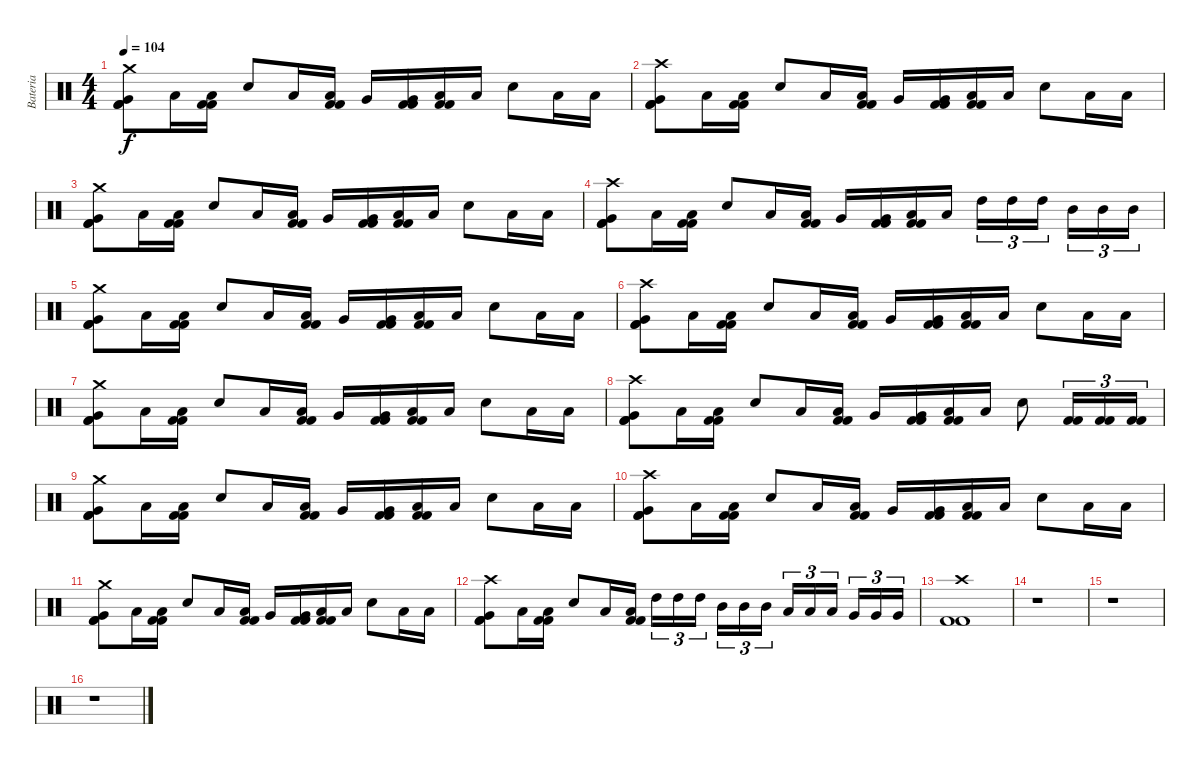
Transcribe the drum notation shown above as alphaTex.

\track ("Bateria" "Bateria") {instrument percussion}
\staff {score}
\articulation defaults
\ts (4 4)
\tempo 104
\clef neutral
\ks c
("Kick (hit) 2" "Kick (hit) 2" "Very Low Tom (hit)" "Crash medium (hit)").8{dy f} "Low Floor Tom (hit)".16 ("Kick (hit) 2" "Kick (hit) 2" "Low Floor Tom (hit)").16 "Snare (hit) 2".8 "Low Floor Tom (hit)".16 ("Kick (hit) 2" "Kick (hit) 2" "Low Floor Tom (hit)").16 "Very Low Tom (hit)".16 ("Kick (hit) 2" "Kick (hit) 2" "Very Low Tom (hit)").16 ("Kick (hit) 2" "Kick (hit) 2" "Low Floor Tom (hit)").16 "Low Floor Tom (hit)".16 "Snare (hit) 2".8 "Low Floor Tom (hit)".16 "Low Floor Tom (hit)".16 |
("Kick (hit) 2" "Kick (hit) 2" "Very Low Tom (hit)" "Crash high (hit)").8 "Low Floor Tom (hit)".16 ("Kick (hit) 2" "Kick (hit) 2" "Low Floor Tom (hit)").16 "Snare (hit) 2".8 "Low Floor Tom (hit)".16 ("Kick (hit) 2" "Kick (hit) 2" "Low Floor Tom (hit)").16 "Very Low Tom (hit)".16 ("Kick (hit) 2" "Kick (hit) 2" "Very Low Tom (hit)").16 ("Kick (hit) 2" "Kick (hit) 2" "Low Floor Tom (hit)").16 "Low Floor Tom (hit)".16 "Snare (hit) 2".8 "Low Floor Tom (hit)".16 "Low Floor Tom (hit)".16 |
("Kick (hit) 2" "Kick (hit) 2" "Very Low Tom (hit)" "Crash medium (hit)").8 "Low Floor Tom (hit)".16 ("Kick (hit) 2" "Kick (hit) 2" "Low Floor Tom (hit)").16 "Snare (hit) 2".8 "Low Floor Tom (hit)".16 ("Kick (hit) 2" "Kick (hit) 2" "Low Floor Tom (hit)").16 "Very Low Tom (hit)".16 ("Kick (hit) 2" "Kick (hit) 2" "Very Low Tom (hit)").16 ("Kick (hit) 2" "Kick (hit) 2" "Low Floor Tom (hit)").16 "Low Floor Tom (hit)".16 "Snare (hit) 2".8 "Low Floor Tom (hit)".16 "Low Floor Tom (hit)".16 |
("Kick (hit) 2" "Kick (hit) 2" "Very Low Tom (hit)" "Crash high (hit)").8 "Low Floor Tom (hit)".16 ("Kick (hit) 2" "Kick (hit) 2" "Low Floor Tom (hit)").16 "Snare (hit) 2".8 "Low Floor Tom (hit)".16 ("Kick (hit) 2" "Kick (hit) 2" "Low Floor Tom (hit)").16 "Very Low Tom (hit)".16 ("Kick (hit) 2" "Kick (hit) 2" "Very Low Tom (hit)").16 ("Kick (hit) 2" "Kick (hit) 2" "Low Floor Tom (hit)").16 "Low Floor Tom (hit)".16 "High Tom (hit)".16{tu (3 2)} "High Tom (hit)".16{tu (3 2)} "High Tom (hit)".16{tu (3 2)} "Mid Tom (hit)".16{tu (3 2)} "Mid Tom (hit)".16{tu (3 2)} "Mid Tom (hit)".16{tu (3 2)} |
("Kick (hit) 2" "Kick (hit) 2" "Very Low Tom (hit)" "Crash medium (hit)").8 "Low Floor Tom (hit)".16 ("Kick (hit) 2" "Kick (hit) 2" "Low Floor Tom (hit)").16 "Snare (hit) 2".8 "Low Floor Tom (hit)".16 ("Kick (hit) 2" "Kick (hit) 2" "Low Floor Tom (hit)").16 "Very Low Tom (hit)".16 ("Kick (hit) 2" "Kick (hit) 2" "Very Low Tom (hit)").16 ("Kick (hit) 2" "Kick (hit) 2" "Low Floor Tom (hit)").16 "Low Floor Tom (hit)".16 "Snare (hit) 2".8 "Low Floor Tom (hit)".16 "Low Floor Tom (hit)".16 |
("Kick (hit) 2" "Kick (hit) 2" "Very Low Tom (hit)" "Crash high (hit)").8 "Low Floor Tom (hit)".16 ("Kick (hit) 2" "Kick (hit) 2" "Low Floor Tom (hit)").16 "Snare (hit) 2".8 "Low Floor Tom (hit)".16 ("Kick (hit) 2" "Kick (hit) 2" "Low Floor Tom (hit)").16 "Very Low Tom (hit)".16 ("Kick (hit) 2" "Kick (hit) 2" "Very Low Tom (hit)").16 ("Kick (hit) 2" "Kick (hit) 2" "Low Floor Tom (hit)").16 "Low Floor Tom (hit)".16 "Snare (hit) 2".8 "Low Floor Tom (hit)".16 "Low Floor Tom (hit)".16 |
("Kick (hit) 2" "Kick (hit) 2" "Very Low Tom (hit)" "Crash medium (hit)").8 "Low Floor Tom (hit)".16 ("Kick (hit) 2" "Kick (hit) 2" "Low Floor Tom (hit)").16 "Snare (hit) 2".8 "Low Floor Tom (hit)".16 ("Kick (hit) 2" "Kick (hit) 2" "Low Floor Tom (hit)").16 "Very Low Tom (hit)".16 ("Kick (hit) 2" "Kick (hit) 2" "Very Low Tom (hit)").16 ("Kick (hit) 2" "Kick (hit) 2" "Low Floor Tom (hit)").16 "Low Floor Tom (hit)".16 "Snare (hit) 2".8 "Low Floor Tom (hit)".16 "Low Floor Tom (hit)".16 |
("Kick (hit) 2" "Kick (hit) 2" "Very Low Tom (hit)" "Crash high (hit)").8 "Low Floor Tom (hit)".16 ("Kick (hit) 2" "Kick (hit) 2" "Low Floor Tom (hit)").16 "Snare (hit) 2".8 "Low Floor Tom (hit)".16 ("Kick (hit) 2" "Kick (hit) 2" "Low Floor Tom (hit)").16 "Very Low Tom (hit)".16 ("Kick (hit) 2" "Kick (hit) 2" "Very Low Tom (hit)").16 ("Kick (hit) 2" "Kick (hit) 2" "Low Floor Tom (hit)").16 "Low Floor Tom (hit)".16 "Snare (hit) 2".8 ("Kick (hit) 2" "Kick (hit) 2").16{tu (3 2)} ("Kick (hit) 2" "Kick (hit) 2").16{tu (3 2)} ("Kick (hit) 2" "Kick (hit) 2").16{tu (3 2)} |
("Kick (hit) 2" "Kick (hit) 2" "Very Low Tom (hit)" "Crash medium (hit)").8 "Low Floor Tom (hit)".16 ("Kick (hit) 2" "Kick (hit) 2" "Low Floor Tom (hit)").16 "Snare (hit) 2".8 "Low Floor Tom (hit)".16 ("Kick (hit) 2" "Kick (hit) 2" "Low Floor Tom (hit)").16 "Very Low Tom (hit)".16 ("Kick (hit) 2" "Kick (hit) 2" "Very Low Tom (hit)").16 ("Kick (hit) 2" "Kick (hit) 2" "Low Floor Tom (hit)").16 "Low Floor Tom (hit)".16 "Snare (hit) 2".8 "Low Floor Tom (hit)".16 "Low Floor Tom (hit)".16 |
("Kick (hit) 2" "Kick (hit) 2" "Very Low Tom (hit)" "Crash high (hit)").8 "Low Floor Tom (hit)".16 ("Kick (hit) 2" "Kick (hit) 2" "Low Floor Tom (hit)").16 "Snare (hit) 2".8 "Low Floor Tom (hit)".16 ("Kick (hit) 2" "Kick (hit) 2" "Low Floor Tom (hit)").16 "Very Low Tom (hit)".16 ("Kick (hit) 2" "Kick (hit) 2" "Very Low Tom (hit)").16 ("Kick (hit) 2" "Kick (hit) 2" "Low Floor Tom (hit)").16 "Low Floor Tom (hit)".16 "Snare (hit) 2".8 "Low Floor Tom (hit)".16 "Low Floor Tom (hit)".16 |
("Kick (hit) 2" "Kick (hit) 2" "Very Low Tom (hit)" "Crash medium (hit)").8 "Low Floor Tom (hit)".16 ("Kick (hit) 2" "Kick (hit) 2" "Low Floor Tom (hit)").16 "Snare (hit) 2".8 "Low Floor Tom (hit)".16 ("Kick (hit) 2" "Kick (hit) 2" "Low Floor Tom (hit)").16 "Very Low Tom (hit)".16 ("Kick (hit) 2" "Kick (hit) 2" "Very Low Tom (hit)").16 ("Kick (hit) 2" "Kick (hit) 2" "Low Floor Tom (hit)").16 "Low Floor Tom (hit)".16 "Snare (hit) 2".8 "Low Floor Tom (hit)".16 "Low Floor Tom (hit)".16 |
("Kick (hit) 2" "Kick (hit) 2" "Very Low Tom (hit)" "Crash high (hit)").8 "Low Floor Tom (hit)".16 ("Kick (hit) 2" "Kick (hit) 2" "Low Floor Tom (hit)").16 "Snare (hit) 2".8 "Low Floor Tom (hit)".16 ("Kick (hit) 2" "Kick (hit) 2" "Low Floor Tom (hit)").16 "High Tom (hit)".16{tu (3 2)} "High Tom (hit)".16{tu (3 2)} "High Tom (hit)".16{tu (3 2)} "Mid Tom (hit)".16{tu (3 2)} "Mid Tom (hit)".16{tu (3 2)} "Mid Tom (hit)".16{tu (3 2)} "Low Tom (hit)".16{tu (3 2)} "Low Tom (hit)".16{tu (3 2)} "Low Tom (hit)".16{tu (3 2)} "Very Low Tom (hit)".16{tu (3 2)} "Very Low Tom (hit)".16{tu (3 2)} "Very Low Tom (hit)".16{tu (3 2)} |
("Kick (hit) 2" "Kick (hit) 2" "Crash high (hit)").1 |
r.1 |
r.1 |
r.1
